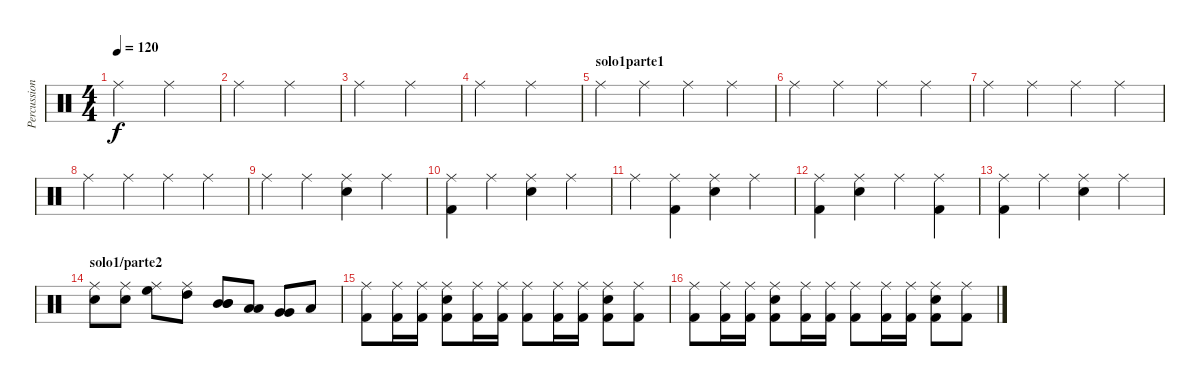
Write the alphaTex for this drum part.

\track ("Percussioni" "Percussion") {instrument percussion}
\staff {score}
\articulation defaults
\ts (4 4)
\tempo 120
\clef neutral
\ks c "Ride (middle)".2{dy f} "Ride (middle)".2
|
"Ride (middle)".2 "Ride (middle)".2 |
"Ride (middle)".2 "Ride (middle)".2 |
"Ride (middle)".2 "Ride (middle)".2 |
\section ("" "solo1parte1")
"Ride (middle)".4 "Ride (middle)".4 "Ride (middle)".4 "Ride (middle)".4 |
"Ride (middle)".4 "Ride (middle)".4 "Ride (middle)".4 "Ride (middle)".4 |
"Ride (middle)".4 "Ride (middle)".4 "Ride (middle)".4 "Ride (middle)".4 |
"Ride (middle)".4 "Ride (middle)".4 "Ride (middle)".4 "Ride (middle)".4 |
"Ride (middle)".4 "Ride (middle)".4 ("Ride (middle)" "Electric Snare (hit)").4 "Ride (middle)".4 |
("Ride (middle)" "Kick (hit) 2").4 "Ride (middle)".4 ("Ride (middle)" "Electric Snare (hit)").4 "Ride (middle)".4 |
"Ride (middle)".4 ("Ride (middle)" "Kick (hit) 2").4 ("Ride (middle)" "Electric Snare (hit)").4 "Ride (middle)".4 |
("Ride (middle)" "Kick (hit) 2").4 ("Ride (middle)" "Electric Snare (hit)").4 "Ride (middle)".4 ("Ride (middle)" "Kick (hit) 2").4 |
("Ride (middle)" "Kick (hit) 2").4 "Ride (middle)".4 ("Ride (middle)" "Electric Snare (hit)").4 "Ride (middle)".4 |
\section ("" "solo1/parte2")
("Ride (middle)" "Electric Snare (hit)").8 ("Ride (middle)" "Electric Snare (hit)").8 ("Ride (middle)" "High Floor Tom (hit)").8 ("Ride (middle)" "High Tom (hit)").8 ("Mid Tom (hit)" "Mid Tom (hit)" "Mid Tom (hit)").8 ("Low Tom (hit)" "Low Tom (hit)").8 ("Very Low Tom (hit)" "Very Low Tom (hit)").8 "Low Floor Tom (hit)".8 |
("Ride (middle)" "Kick (hit) 2").8 ("Ride (middle)" "Kick (hit) 2").16 ("Ride (middle)" "Kick (hit) 2").16 ("Ride (middle)" "Kick (hit) 2" "Electric Snare (hit)").8 ("Ride (middle)" "Kick (hit) 2").16 ("Ride (middle)" "Kick (hit) 2").16 ("Ride (middle)" "Kick (hit) 2").8 ("Ride (middle)" "Kick (hit) 2").16 ("Ride (middle)" "Kick (hit) 2").16 ("Ride (middle)" "Kick (hit) 2" "Electric Snare (hit)").8 ("Ride (middle)" "Kick (hit) 2").8 |
("Ride (middle)" "Kick (hit) 2").8 ("Ride (middle)" "Kick (hit) 2").16 ("Ride (middle)" "Kick (hit) 2").16 ("Ride (middle)" "Kick (hit) 2" "Electric Snare (hit)").8 ("Ride (middle)" "Kick (hit) 2").16 ("Ride (middle)" "Kick (hit) 2").16 ("Ride (middle)" "Kick (hit) 2").8 ("Ride (middle)" "Kick (hit) 2").16 ("Ride (middle)" "Kick (hit) 2").16 ("Ride (middle)" "Kick (hit) 2" "Electric Snare (hit)").8 ("Ride (middle)" "Kick (hit) 2").8
